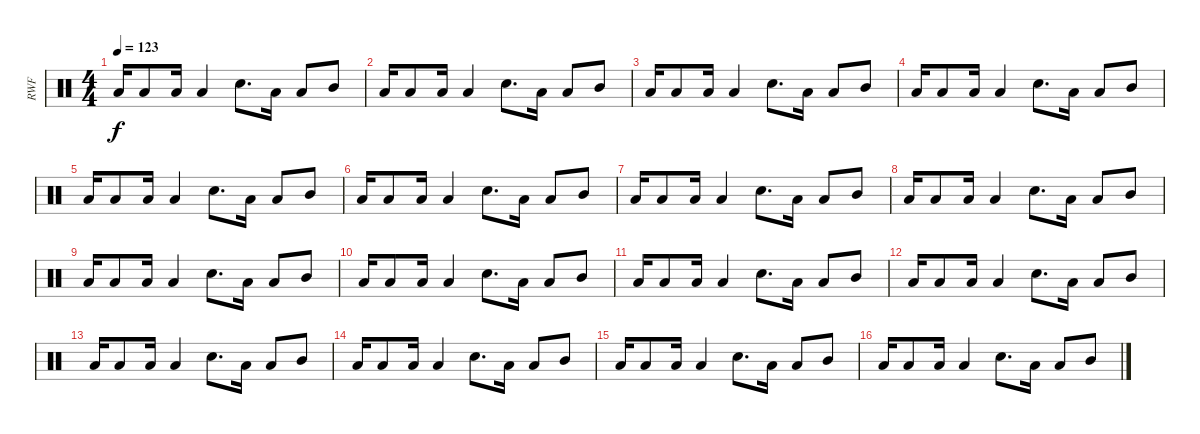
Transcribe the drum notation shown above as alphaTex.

\track ("RWF" "RWF") {instrument percussion}
\staff {score}
\articulation defaults
\ts (4 4)
\tempo 123
\clef neutral
\ks c "Low Tom (hit)".16{dy f} "Low Tom (hit)".8 "Low Tom (hit)".16 "Low Tom (hit)".4 "Electric Snare (hit)".8{d} "Low Tom (hit)".16 "Low Tom (hit)".8 "Mid Tom (hit)".8
|
"Low Tom (hit)".16 "Low Tom (hit)".8 "Low Tom (hit)".16 "Low Tom (hit)".4 "Electric Snare (hit)".8{d} "Low Tom (hit)".16 "Low Tom (hit)".8 "Mid Tom (hit)".8 |
"Low Tom (hit)".16 "Low Tom (hit)".8 "Low Tom (hit)".16 "Low Tom (hit)".4 "Electric Snare (hit)".8{d} "Low Tom (hit)".16 "Low Tom (hit)".8 "Mid Tom (hit)".8 |
"Low Tom (hit)".16 "Low Tom (hit)".8 "Low Tom (hit)".16 "Low Tom (hit)".4 "Electric Snare (hit)".8{d} "Low Tom (hit)".16 "Low Tom (hit)".8 "Mid Tom (hit)".8 |
"Low Tom (hit)".16 "Low Tom (hit)".8 "Low Tom (hit)".16 "Low Tom (hit)".4 "Electric Snare (hit)".8{d} "Low Tom (hit)".16 "Low Tom (hit)".8 "Mid Tom (hit)".8 |
"Low Tom (hit)".16 "Low Tom (hit)".8 "Low Tom (hit)".16 "Low Tom (hit)".4 "Electric Snare (hit)".8{d} "Low Tom (hit)".16 "Low Tom (hit)".8 "Mid Tom (hit)".8 |
"Low Tom (hit)".16 "Low Tom (hit)".8 "Low Tom (hit)".16 "Low Tom (hit)".4 "Electric Snare (hit)".8{d} "Low Tom (hit)".16 "Low Tom (hit)".8 "Mid Tom (hit)".8 |
"Low Tom (hit)".16 "Low Tom (hit)".8 "Low Tom (hit)".16 "Low Tom (hit)".4 "Electric Snare (hit)".8{d} "Low Tom (hit)".16 "Low Tom (hit)".8 "Mid Tom (hit)".8 |
"Low Tom (hit)".16 "Low Tom (hit)".8 "Low Tom (hit)".16 "Low Tom (hit)".4 "Electric Snare (hit)".8{d} "Low Tom (hit)".16 "Low Tom (hit)".8 "Mid Tom (hit)".8 |
"Low Tom (hit)".16 "Low Tom (hit)".8 "Low Tom (hit)".16 "Low Tom (hit)".4 "Electric Snare (hit)".8{d} "Low Tom (hit)".16 "Low Tom (hit)".8 "Mid Tom (hit)".8 |
"Low Tom (hit)".16 "Low Tom (hit)".8 "Low Tom (hit)".16 "Low Tom (hit)".4 "Electric Snare (hit)".8{d} "Low Tom (hit)".16 "Low Tom (hit)".8 "Mid Tom (hit)".8 |
"Low Tom (hit)".16 "Low Tom (hit)".8 "Low Tom (hit)".16 "Low Tom (hit)".4 "Electric Snare (hit)".8{d} "Low Tom (hit)".16 "Low Tom (hit)".8 "Mid Tom (hit)".8 |
"Low Tom (hit)".16 "Low Tom (hit)".8 "Low Tom (hit)".16 "Low Tom (hit)".4 "Electric Snare (hit)".8{d} "Low Tom (hit)".16 "Low Tom (hit)".8 "Mid Tom (hit)".8 |
"Low Tom (hit)".16 "Low Tom (hit)".8 "Low Tom (hit)".16 "Low Tom (hit)".4 "Electric Snare (hit)".8{d} "Low Tom (hit)".16 "Low Tom (hit)".8 "Mid Tom (hit)".8 |
"Low Tom (hit)".16 "Low Tom (hit)".8 "Low Tom (hit)".16 "Low Tom (hit)".4 "Electric Snare (hit)".8{d} "Low Tom (hit)".16 "Low Tom (hit)".8 "Mid Tom (hit)".8 |
"Low Tom (hit)".16 "Low Tom (hit)".8 "Low Tom (hit)".16 "Low Tom (hit)".4 "Electric Snare (hit)".8{d} "Low Tom (hit)".16 "Low Tom (hit)".8 "Mid Tom (hit)".8
